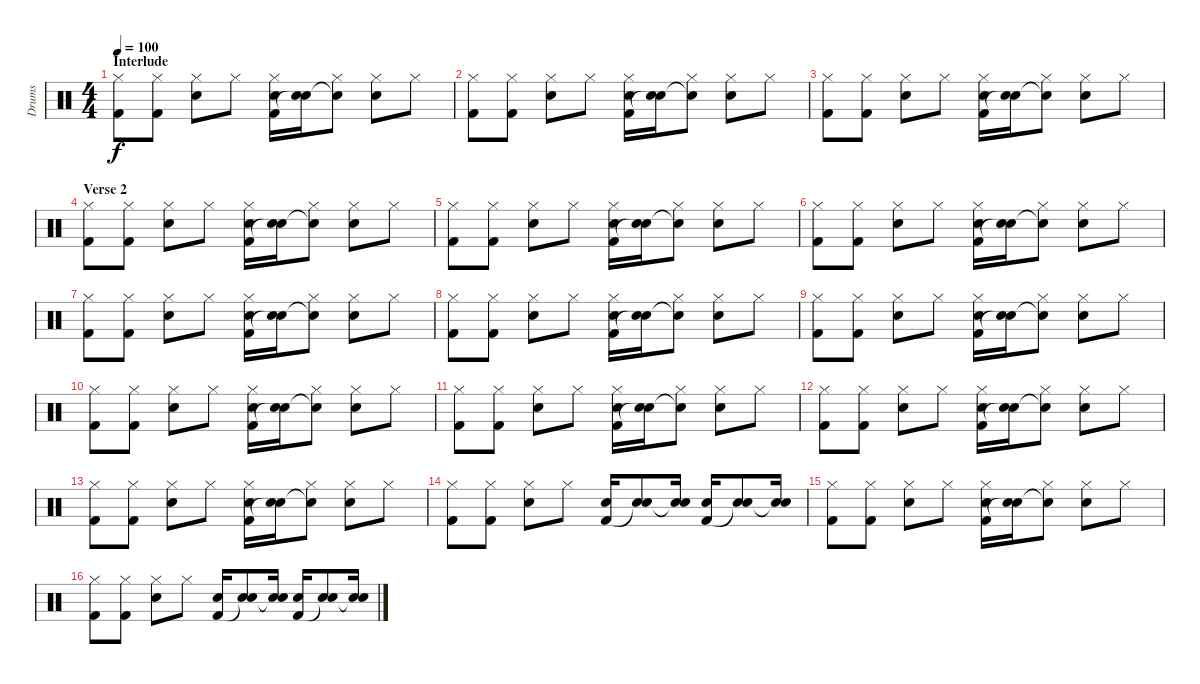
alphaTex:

\track ("Drums" "Drums") {instrument percussion}
\staff {score}
\articulation defaults
\ts (4 4)
\section ("" "Interlude")
\tempo 100
\clef neutral
\ks c
("Kick (hit) 2" "Hi-Hat (closed)").8{dy f} ("Kick (hit) 2" "Hi-Hat (closed)").8 ("Snare (hit) 2" "Hi-Hat (closed)").8 "Hi-Hat (closed)".8 ("Kick (hit) 2" "Snare (hit) 2" "Hi-Hat (closed)").16 ("Snare (hit)"{t} "Snare (hit) 2").16 ("Snare (hit)"{t} "Hi-Hat (closed)").8 ("Snare (hit) 2" "Hi-Hat (closed)").8 "Hi-Hat (closed)".8 |
("Kick (hit) 2" "Hi-Hat (closed)").8 ("Kick (hit) 2" "Hi-Hat (closed)").8 ("Snare (hit) 2" "Hi-Hat (closed)").8 "Hi-Hat (closed)".8 ("Kick (hit) 2" "Snare (hit) 2" "Hi-Hat (closed)").16 ("Snare (hit)"{t} "Snare (hit) 2").16 ("Snare (hit)"{t} "Hi-Hat (closed)").8 ("Snare (hit) 2" "Hi-Hat (closed)").8 "Hi-Hat (closed)".8 |
("Kick (hit) 2" "Hi-Hat (closed)").8 ("Kick (hit) 2" "Hi-Hat (closed)").8 ("Snare (hit) 2" "Hi-Hat (closed)").8 "Hi-Hat (closed)".8 ("Kick (hit) 2" "Snare (hit) 2" "Hi-Hat (closed)").16 ("Snare (hit)"{t} "Snare (hit) 2").16 ("Snare (hit)"{t} "Hi-Hat (closed)").8 ("Snare (hit) 2" "Hi-Hat (closed)").8 "Hi-Hat (closed)".8 |
\section ("" "Verse 2")
("Kick (hit) 2" "Hi-Hat (closed)").8 ("Kick (hit) 2" "Hi-Hat (closed)").8 ("Snare (hit) 2" "Hi-Hat (closed)").8 "Hi-Hat (closed)".8 ("Kick (hit) 2" "Snare (hit) 2" "Hi-Hat (closed)").16 ("Snare (hit)"{t} "Snare (hit) 2").16 ("Snare (hit)"{t} "Hi-Hat (closed)").8 ("Snare (hit) 2" "Hi-Hat (closed)").8 "Hi-Hat (closed)".8 |
("Kick (hit) 2" "Hi-Hat (closed)").8 ("Kick (hit) 2" "Hi-Hat (closed)").8 ("Snare (hit) 2" "Hi-Hat (closed)").8 "Hi-Hat (closed)".8 ("Kick (hit) 2" "Snare (hit) 2" "Hi-Hat (closed)").16 ("Snare (hit)"{t} "Snare (hit) 2").16 ("Snare (hit)"{t} "Hi-Hat (closed)").8 ("Snare (hit) 2" "Hi-Hat (closed)").8 "Hi-Hat (closed)".8 |
("Kick (hit) 2" "Hi-Hat (closed)").8 ("Kick (hit) 2" "Hi-Hat (closed)").8 ("Snare (hit) 2" "Hi-Hat (closed)").8 "Hi-Hat (closed)".8 ("Kick (hit) 2" "Snare (hit) 2" "Hi-Hat (closed)").16 ("Snare (hit)"{t} "Snare (hit) 2").16 ("Snare (hit)"{t} "Hi-Hat (closed)").8 ("Snare (hit) 2" "Hi-Hat (closed)").8 "Hi-Hat (closed)".8 |
("Kick (hit) 2" "Hi-Hat (closed)").8 ("Kick (hit) 2" "Hi-Hat (closed)").8 ("Snare (hit) 2" "Hi-Hat (closed)").8 "Hi-Hat (closed)".8 ("Kick (hit) 2" "Snare (hit) 2" "Hi-Hat (closed)").16 ("Snare (hit)"{t} "Snare (hit) 2").16 ("Snare (hit)"{t} "Hi-Hat (closed)").8 ("Snare (hit) 2" "Hi-Hat (closed)").8 "Hi-Hat (closed)".8 |
("Kick (hit) 2" "Hi-Hat (closed)").8 ("Kick (hit) 2" "Hi-Hat (closed)").8 ("Snare (hit) 2" "Hi-Hat (closed)").8 "Hi-Hat (closed)".8 ("Kick (hit) 2" "Snare (hit) 2" "Hi-Hat (closed)").16 ("Snare (hit)"{t} "Snare (hit) 2").16 ("Snare (hit)"{t} "Hi-Hat (closed)").8 ("Snare (hit) 2" "Hi-Hat (closed)").8 "Hi-Hat (closed)".8 |
("Kick (hit) 2" "Hi-Hat (closed)").8 ("Kick (hit) 2" "Hi-Hat (closed)").8 ("Snare (hit) 2" "Hi-Hat (closed)").8 "Hi-Hat (closed)".8 ("Kick (hit) 2" "Snare (hit) 2" "Hi-Hat (closed)").16 ("Snare (hit)"{t} "Snare (hit) 2").16 ("Snare (hit)"{t} "Hi-Hat (closed)").8 ("Snare (hit) 2" "Hi-Hat (closed)").8 "Hi-Hat (closed)".8 |
("Kick (hit) 2" "Hi-Hat (closed)").8 ("Kick (hit) 2" "Hi-Hat (closed)").8 ("Snare (hit) 2" "Hi-Hat (closed)").8 "Hi-Hat (closed)".8 ("Kick (hit) 2" "Snare (hit) 2" "Hi-Hat (closed)").16 ("Snare (hit)"{t} "Snare (hit) 2").16 ("Snare (hit)"{t} "Hi-Hat (closed)").8 ("Snare (hit) 2" "Hi-Hat (closed)").8 "Hi-Hat (closed)".8 |
("Kick (hit) 2" "Hi-Hat (closed)").8 ("Kick (hit) 2" "Hi-Hat (closed)").8 ("Snare (hit) 2" "Hi-Hat (closed)").8 "Hi-Hat (closed)".8 ("Kick (hit) 2" "Snare (hit) 2" "Hi-Hat (closed)").16 ("Snare (hit)"{t} "Snare (hit) 2").16 ("Snare (hit)"{t} "Hi-Hat (closed)").8 ("Snare (hit) 2" "Hi-Hat (closed)").8 "Hi-Hat (closed)".8 |
("Kick (hit) 2" "Hi-Hat (closed)").8 ("Kick (hit) 2" "Hi-Hat (closed)").8 ("Snare (hit) 2" "Hi-Hat (closed)").8 "Hi-Hat (closed)".8 ("Kick (hit) 2" "Snare (hit) 2" "Hi-Hat (closed)").16 ("Snare (hit)"{t} "Snare (hit) 2").16 ("Snare (hit)"{t} "Hi-Hat (closed)").8 ("Snare (hit) 2" "Hi-Hat (closed)").8 "Hi-Hat (closed)".8 |
("Kick (hit) 2" "Hi-Hat (closed)").8 ("Kick (hit) 2" "Hi-Hat (closed)").8 ("Snare (hit) 2" "Hi-Hat (closed)").8 "Hi-Hat (closed)".8 ("Kick (hit) 2" "Snare (hit) 2" "Hi-Hat (closed)").16 ("Snare (hit)"{t} "Snare (hit) 2").16 ("Snare (hit)"{t} "Hi-Hat (closed)").8 ("Snare (hit) 2" "Hi-Hat (closed)").8 "Hi-Hat (closed)".8 |
("Kick (hit) 2" "Hi-Hat (closed)").8 ("Kick (hit) 2" "Hi-Hat (closed)").8 ("Snare (hit) 2" "Hi-Hat (closed)").8 "Hi-Hat (closed)".8 ("Kick (hit) 2" "Snare (hit) 2").16 ("Snare (hit)"{t} "Snare (hit) 2").8 ("Snare (hit)"{t} "Snare (hit) 2").16 ("Kick (hit) 2" "Snare (hit) 2").16 ("Snare (hit)"{t} "Snare (hit) 2").8 ("Snare (hit)"{t} "Snare (hit) 2").16 |
("Kick (hit) 2" "Hi-Hat (closed)").8 ("Kick (hit) 2" "Hi-Hat (closed)").8 ("Snare (hit) 2" "Hi-Hat (closed)").8 "Hi-Hat (closed)".8 ("Kick (hit) 2" "Snare (hit) 2" "Hi-Hat (closed)").16 ("Snare (hit)"{t} "Snare (hit) 2").16 ("Snare (hit)"{t} "Hi-Hat (closed)").8 ("Snare (hit) 2" "Hi-Hat (closed)").8 "Hi-Hat (closed)".8 |
("Kick (hit) 2" "Hi-Hat (closed)").8 ("Kick (hit) 2" "Hi-Hat (closed)").8 ("Snare (hit) 2" "Hi-Hat (closed)").8 "Hi-Hat (closed)".8 ("Kick (hit) 2" "Snare (hit) 2").16 ("Snare (hit)"{t} "Snare (hit) 2").8 ("Snare (hit)"{t} "Snare (hit) 2").16 ("Kick (hit) 2" "Snare (hit) 2").16 ("Snare (hit)"{t} "Snare (hit) 2").8 ("Snare (hit)"{t} "Snare (hit) 2").16
